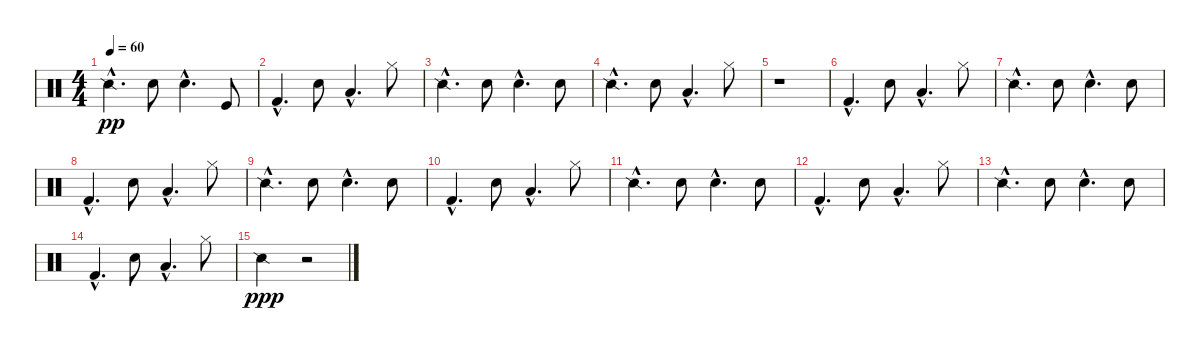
\track "" {instrument percussion}
\staff {score}
\articulation defaults
\ts (4 4)
\tempo 60
\clef neutral
\ks c "Snare (side stick) 2"{hac}.4{d dy pp} "Metronome (bell)".8 "Snare (hit) 2"{hac}.4{d} "Kick (hit)".8
|
"Kick (hit) 2"{hac}.4{d} "Hand Clap (hit)".8 "Low Tom (hit)"{hac}.4{d} "Hi-Hat (closed)".8 |
"Snare (side stick) 2"{hac}.4{d} "Metronome (bell)".8 "Snare (hit) 2"{hac}.4{d} "Metronome (bell)".8 |
"Snare (side stick) 2"{hac}.4{d} "Metronome (bell)".8 "Low Tom (hit)"{hac}.4{d} "Hi-Hat (closed)".8 |
r.1 |
"Kick (hit) 2"{hac}.4{d} "Hand Clap (hit)".8 "Low Tom (hit)"{hac}.4{d} "Hi-Hat (closed)".8 |
"Snare (side stick) 2"{hac}.4{d} "Metronome (bell)".8 "Hand Clap (hit)"{hac}.4{d} "Metronome (bell)".8 |
"Kick (hit) 2"{hac}.4{d} "Hand Clap (hit)".8 "Low Tom (hit)"{hac}.4{d} "Hi-Hat (closed)".8 |
"Snare (side stick) 2"{hac}.4{d} "Metronome (bell)".8 "Snare (hit) 2"{hac}.4{d} "Metronome (bell)".8 |
"Kick (hit) 2"{hac}.4{d} "Hand Clap (hit)".8 "Low Tom (hit)"{hac}.4{d} "Hi-Hat (closed)".8 |
"Snare (side stick) 2"{hac}.4{d} "Metronome (bell)".8 "Hand Clap (hit)"{hac}.4{d} "Metronome (bell)".8 |
"Kick (hit) 2"{hac}.4{d} "Hand Clap (hit)".8 "Low Tom (hit)"{hac}.4{d} "Hi-Hat (closed)".8 |
"Snare (side stick) 2"{hac}.4{d} "Metronome (bell)".8 "Snare (hit) 2"{hac}.4{d} "Metronome (bell)".8 |
"Kick (hit) 2"{hac}.4{d} "Hand Clap (hit)".8 "Low Tom (hit)"{hac}.4{d} "Hi-Hat (closed)".8 |
"Snare (side stick) 2".2{dy ppp} r.2
